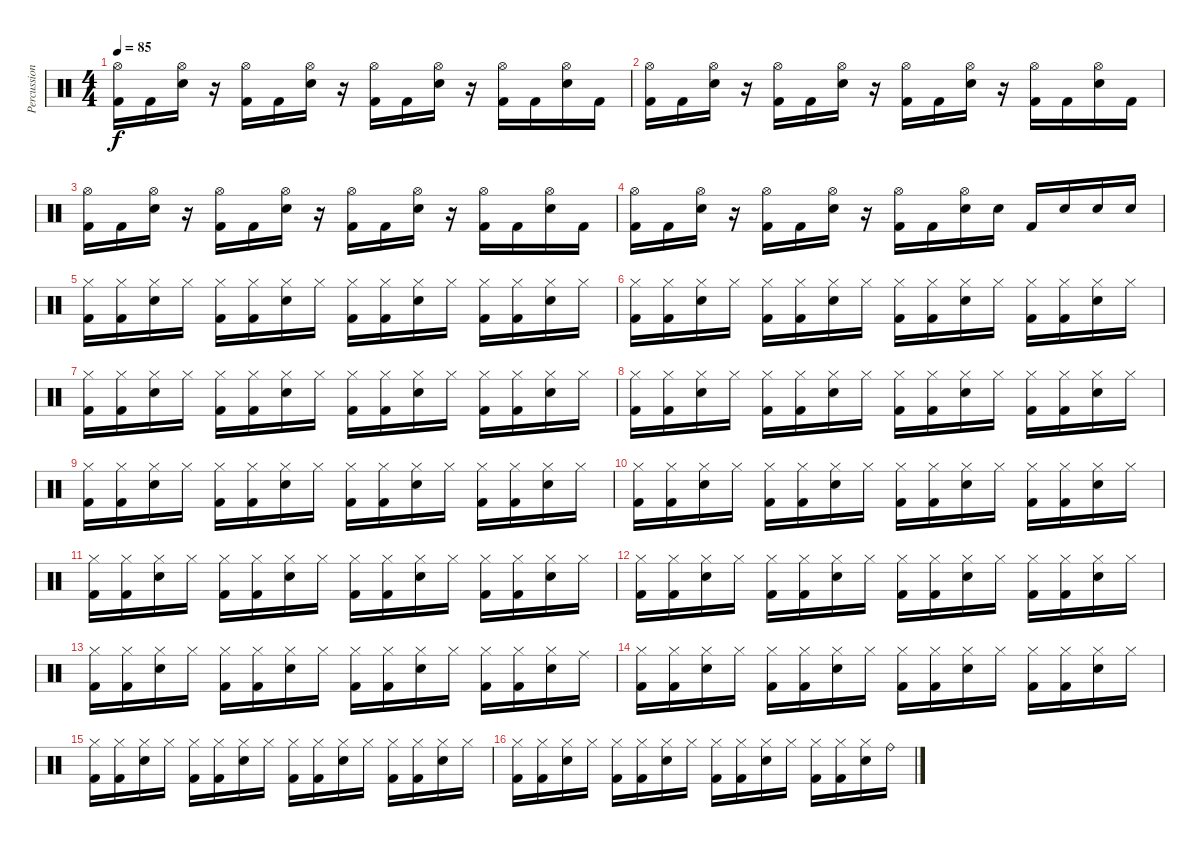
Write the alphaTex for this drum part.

\track ("Percussion" "Percussion") {instrument percussion}
\staff {score}
\articulation defaults
\ts (4 4)
\tempo 85
\clef neutral
\ks c
("Hi-Hat (open)" "Kick (hit) 2").16{dy f} "Kick (hit) 2".16 ("Hi-Hat (open)" "Snare (hit) 2").16 r.16 ("Hi-Hat (open)" "Kick (hit) 2").16 "Kick (hit) 2".16 ("Hi-Hat (open)" "Snare (hit) 2").16 r.16 ("Hi-Hat (open)" "Kick (hit) 2").16 "Kick (hit) 2".16 ("Hi-Hat (open)" "Snare (hit) 2").16 r.16 ("Hi-Hat (open)" "Kick (hit) 2").16 "Kick (hit) 2".16 ("Hi-Hat (open)" "Snare (hit) 2").16 "Kick (hit) 2".16 |
("Hi-Hat (open)" "Kick (hit) 2").16 "Kick (hit) 2".16 ("Hi-Hat (open)" "Snare (hit) 2").16 r.16 ("Hi-Hat (open)" "Kick (hit) 2").16 "Kick (hit) 2".16 ("Hi-Hat (open)" "Snare (hit) 2").16 r.16 ("Hi-Hat (open)" "Kick (hit) 2").16 "Kick (hit) 2".16 ("Hi-Hat (open)" "Snare (hit) 2").16 r.16 ("Hi-Hat (open)" "Kick (hit) 2").16 "Kick (hit) 2".16 ("Hi-Hat (open)" "Snare (hit) 2").16 "Kick (hit) 2".16 |
("Hi-Hat (open)" "Kick (hit) 2").16 "Kick (hit) 2".16 ("Hi-Hat (open)" "Snare (hit) 2").16 r.16 ("Hi-Hat (open)" "Kick (hit) 2").16 "Kick (hit) 2".16 ("Hi-Hat (open)" "Snare (hit) 2").16 r.16 ("Hi-Hat (open)" "Kick (hit) 2").16 "Kick (hit) 2".16 ("Hi-Hat (open)" "Snare (hit) 2").16 r.16 ("Hi-Hat (open)" "Kick (hit) 2").16 "Kick (hit) 2".16 ("Hi-Hat (open)" "Snare (hit) 2").16 "Kick (hit) 2".16 |
("Hi-Hat (open)" "Kick (hit) 2").16 "Kick (hit) 2".16 ("Hi-Hat (open)" "Snare (hit) 2").16 r.16 ("Hi-Hat (open)" "Kick (hit) 2").16 "Kick (hit) 2".16 ("Hi-Hat (open)" "Snare (hit) 2").16 r.16 ("Hi-Hat (open)" "Kick (hit) 2").16 "Kick (hit) 2".16 ("Hi-Hat (open)" "Snare (hit) 2").16 "Snare (hit) 2".16 "Kick (hit) 2".16 "Snare (hit) 2".16 "Snare (hit) 2".16 "Snare (hit) 2".16 |
("Hi-Hat (closed)" "Kick (hit) 2").16 ("Hi-Hat (closed)" "Kick (hit) 2").16 ("Hi-Hat (closed)" "Snare (hit) 2").16 "Hi-Hat (closed)".16 ("Hi-Hat (closed)" "Kick (hit) 2").16 ("Hi-Hat (closed)" "Kick (hit) 2").16 ("Hi-Hat (closed)" "Snare (hit) 2").16 "Hi-Hat (closed)".16 ("Hi-Hat (closed)" "Kick (hit) 2").16 ("Hi-Hat (closed)" "Kick (hit) 2").16 ("Hi-Hat (closed)" "Snare (hit) 2").16 "Hi-Hat (closed)".16 ("Hi-Hat (closed)" "Kick (hit) 2").16 ("Hi-Hat (closed)" "Kick (hit) 2").16 ("Hi-Hat (closed)" "Snare (hit) 2").16 "Hi-Hat (closed)".16 |
("Hi-Hat (closed)" "Kick (hit) 2").16 ("Hi-Hat (closed)" "Kick (hit) 2").16 ("Hi-Hat (closed)" "Snare (hit) 2").16 "Hi-Hat (closed)".16 ("Hi-Hat (closed)" "Kick (hit) 2").16 ("Hi-Hat (closed)" "Kick (hit) 2").16 ("Hi-Hat (closed)" "Snare (hit) 2").16 "Hi-Hat (closed)".16 ("Hi-Hat (closed)" "Kick (hit) 2").16 ("Hi-Hat (closed)" "Kick (hit) 2").16 ("Hi-Hat (closed)" "Snare (hit) 2").16 "Hi-Hat (closed)".16 ("Hi-Hat (closed)" "Kick (hit) 2").16 ("Hi-Hat (closed)" "Kick (hit) 2").16 ("Hi-Hat (closed)" "Snare (hit) 2").16 "Hi-Hat (closed)".16 |
("Hi-Hat (closed)" "Kick (hit) 2").16 ("Hi-Hat (closed)" "Kick (hit) 2").16 ("Hi-Hat (closed)" "Snare (hit) 2").16 "Hi-Hat (closed)".16 ("Hi-Hat (closed)" "Kick (hit) 2").16 ("Hi-Hat (closed)" "Kick (hit) 2").16 ("Hi-Hat (closed)" "Snare (hit) 2").16 "Hi-Hat (closed)".16 ("Hi-Hat (closed)" "Kick (hit) 2").16 ("Hi-Hat (closed)" "Kick (hit) 2").16 ("Hi-Hat (closed)" "Snare (hit) 2").16 "Hi-Hat (closed)".16 ("Hi-Hat (closed)" "Kick (hit) 2").16 ("Hi-Hat (closed)" "Kick (hit) 2").16 ("Hi-Hat (closed)" "Snare (hit) 2").16 "Hi-Hat (closed)".16 |
("Hi-Hat (closed)" "Kick (hit) 2").16 ("Hi-Hat (closed)" "Kick (hit) 2").16 ("Hi-Hat (closed)" "Snare (hit) 2").16 "Hi-Hat (closed)".16 ("Hi-Hat (closed)" "Kick (hit) 2").16 ("Hi-Hat (closed)" "Kick (hit) 2").16 ("Hi-Hat (closed)" "Snare (hit) 2").16 "Hi-Hat (closed)".16 ("Hi-Hat (closed)" "Kick (hit) 2").16 ("Hi-Hat (closed)" "Kick (hit) 2").16 ("Hi-Hat (closed)" "Snare (hit) 2").16 "Hi-Hat (closed)".16 ("Hi-Hat (closed)" "Kick (hit) 2").16 ("Hi-Hat (closed)" "Kick (hit) 2").16 ("Hi-Hat (closed)" "Snare (hit) 2").16 "Hi-Hat (closed)".16 |
("Hi-Hat (closed)" "Kick (hit) 2").16 ("Hi-Hat (closed)" "Kick (hit) 2").16 ("Hi-Hat (closed)" "Snare (hit) 2").16 "Hi-Hat (closed)".16 ("Hi-Hat (closed)" "Kick (hit) 2").16 ("Hi-Hat (closed)" "Kick (hit) 2").16 ("Hi-Hat (closed)" "Snare (hit) 2").16 "Hi-Hat (closed)".16 ("Hi-Hat (closed)" "Kick (hit) 2").16 ("Hi-Hat (closed)" "Kick (hit) 2").16 ("Hi-Hat (closed)" "Snare (hit) 2").16 "Hi-Hat (closed)".16 ("Hi-Hat (closed)" "Kick (hit) 2").16 ("Hi-Hat (closed)" "Kick (hit) 2").16 ("Hi-Hat (closed)" "Snare (hit) 2").16 "Hi-Hat (closed)".16 |
("Hi-Hat (closed)" "Kick (hit) 2").16 ("Hi-Hat (closed)" "Kick (hit) 2").16 ("Hi-Hat (closed)" "Snare (hit) 2").16 "Hi-Hat (closed)".16 ("Hi-Hat (closed)" "Kick (hit) 2").16 ("Hi-Hat (closed)" "Kick (hit) 2").16 ("Hi-Hat (closed)" "Snare (hit) 2").16 "Hi-Hat (closed)".16 ("Hi-Hat (closed)" "Kick (hit) 2").16 ("Hi-Hat (closed)" "Kick (hit) 2").16 ("Hi-Hat (closed)" "Snare (hit) 2").16 "Hi-Hat (closed)".16 ("Hi-Hat (closed)" "Kick (hit) 2").16 ("Hi-Hat (closed)" "Kick (hit) 2").16 ("Hi-Hat (closed)" "Snare (hit) 2").16 "Hi-Hat (closed)".16 |
("Hi-Hat (closed)" "Kick (hit) 2").16 ("Hi-Hat (closed)" "Kick (hit) 2").16 ("Hi-Hat (closed)" "Snare (hit) 2").16 "Hi-Hat (closed)".16 ("Hi-Hat (closed)" "Kick (hit) 2").16 ("Hi-Hat (closed)" "Kick (hit) 2").16 ("Hi-Hat (closed)" "Snare (hit) 2").16 "Hi-Hat (closed)".16 ("Hi-Hat (closed)" "Kick (hit) 2").16 ("Hi-Hat (closed)" "Kick (hit) 2").16 ("Hi-Hat (closed)" "Snare (hit) 2").16 "Hi-Hat (closed)".16 ("Hi-Hat (closed)" "Kick (hit) 2").16 ("Hi-Hat (closed)" "Kick (hit) 2").16 ("Hi-Hat (closed)" "Snare (hit) 2").16 "Hi-Hat (closed)".16 |
("Hi-Hat (closed)" "Kick (hit) 2").16 ("Hi-Hat (closed)" "Kick (hit) 2").16 ("Hi-Hat (closed)" "Snare (hit) 2").16 "Hi-Hat (closed)".16 ("Hi-Hat (closed)" "Kick (hit) 2").16 ("Hi-Hat (closed)" "Kick (hit) 2").16 ("Hi-Hat (closed)" "Snare (hit) 2").16 "Hi-Hat (closed)".16 ("Hi-Hat (closed)" "Kick (hit) 2").16 ("Hi-Hat (closed)" "Kick (hit) 2").16 ("Hi-Hat (closed)" "Snare (hit) 2").16 "Hi-Hat (closed)".16 ("Hi-Hat (closed)" "Kick (hit) 2").16 ("Hi-Hat (closed)" "Kick (hit) 2").16 ("Hi-Hat (closed)" "Snare (hit) 2").16 "Hi-Hat (closed)".16 |
("Hi-Hat (closed)" "Kick (hit) 2").16 ("Hi-Hat (closed)" "Kick (hit) 2").16 ("Hi-Hat (closed)" "Snare (hit) 2").16 "Hi-Hat (closed)".16 ("Hi-Hat (closed)" "Kick (hit) 2").16 ("Hi-Hat (closed)" "Kick (hit) 2").16 ("Hi-Hat (closed)" "Snare (hit) 2").16 "Hi-Hat (closed)".16 ("Hi-Hat (closed)" "Kick (hit) 2").16 ("Hi-Hat (closed)" "Kick (hit) 2").16 ("Hi-Hat (closed)" "Snare (hit) 2").16 "Hi-Hat (closed)".16 ("Hi-Hat (closed)" "Kick (hit) 2").16 ("Hi-Hat (closed)" "Kick (hit) 2").16 ("Hi-Hat (closed)" "Snare (hit) 2").16 "Ride (middle)".16 |
("Hi-Hat (closed)" "Kick (hit) 2").16 ("Hi-Hat (closed)" "Kick (hit) 2").16 ("Hi-Hat (closed)" "Snare (hit) 2").16 "Hi-Hat (closed)".16 ("Hi-Hat (closed)" "Kick (hit) 2").16 ("Hi-Hat (closed)" "Kick (hit) 2").16 ("Hi-Hat (closed)" "Snare (hit) 2").16 "Hi-Hat (closed)".16 ("Hi-Hat (closed)" "Kick (hit) 2").16 ("Hi-Hat (closed)" "Kick (hit) 2").16 ("Hi-Hat (closed)" "Snare (hit) 2").16 "Hi-Hat (closed)".16 ("Hi-Hat (closed)" "Kick (hit) 2").16 ("Hi-Hat (closed)" "Kick (hit) 2").16 ("Hi-Hat (closed)" "Snare (hit) 2").16 "Hi-Hat (closed)".16 |
("Hi-Hat (closed)" "Kick (hit) 2").16 ("Hi-Hat (closed)" "Kick (hit) 2").16 ("Hi-Hat (closed)" "Snare (hit) 2").16 "Hi-Hat (closed)".16 ("Hi-Hat (closed)" "Kick (hit) 2").16 ("Hi-Hat (closed)" "Kick (hit) 2").16 ("Hi-Hat (closed)" "Snare (hit) 2").16 "Hi-Hat (closed)".16 ("Hi-Hat (closed)" "Kick (hit) 2").16 ("Hi-Hat (closed)" "Kick (hit) 2").16 ("Hi-Hat (closed)" "Snare (hit) 2").16 "Hi-Hat (closed)".16 ("Hi-Hat (closed)" "Kick (hit) 2").16 ("Hi-Hat (closed)" "Kick (hit) 2").16 ("Hi-Hat (closed)" "Snare (hit) 2").16 "Hi-Hat (closed)".16 |
("Hi-Hat (closed)" "Kick (hit) 2").16 ("Hi-Hat (closed)" "Kick (hit) 2").16 ("Hi-Hat (closed)" "Snare (hit) 2").16 "Hi-Hat (closed)".16 ("Hi-Hat (closed)" "Kick (hit) 2").16 ("Hi-Hat (closed)" "Kick (hit) 2").16 ("Hi-Hat (closed)" "Snare (hit) 2").16 "Hi-Hat (closed)".16 ("Hi-Hat (closed)" "Kick (hit) 2").16 ("Hi-Hat (closed)" "Kick (hit) 2").16 ("Hi-Hat (closed)" "Snare (hit) 2").16 "Hi-Hat (closed)".16 ("Hi-Hat (closed)" "Kick (hit) 2").16 ("Hi-Hat (closed)" "Kick (hit) 2").16 ("Hi-Hat (closed)" "Snare (hit) 2").16 "Ride (bell)".16
